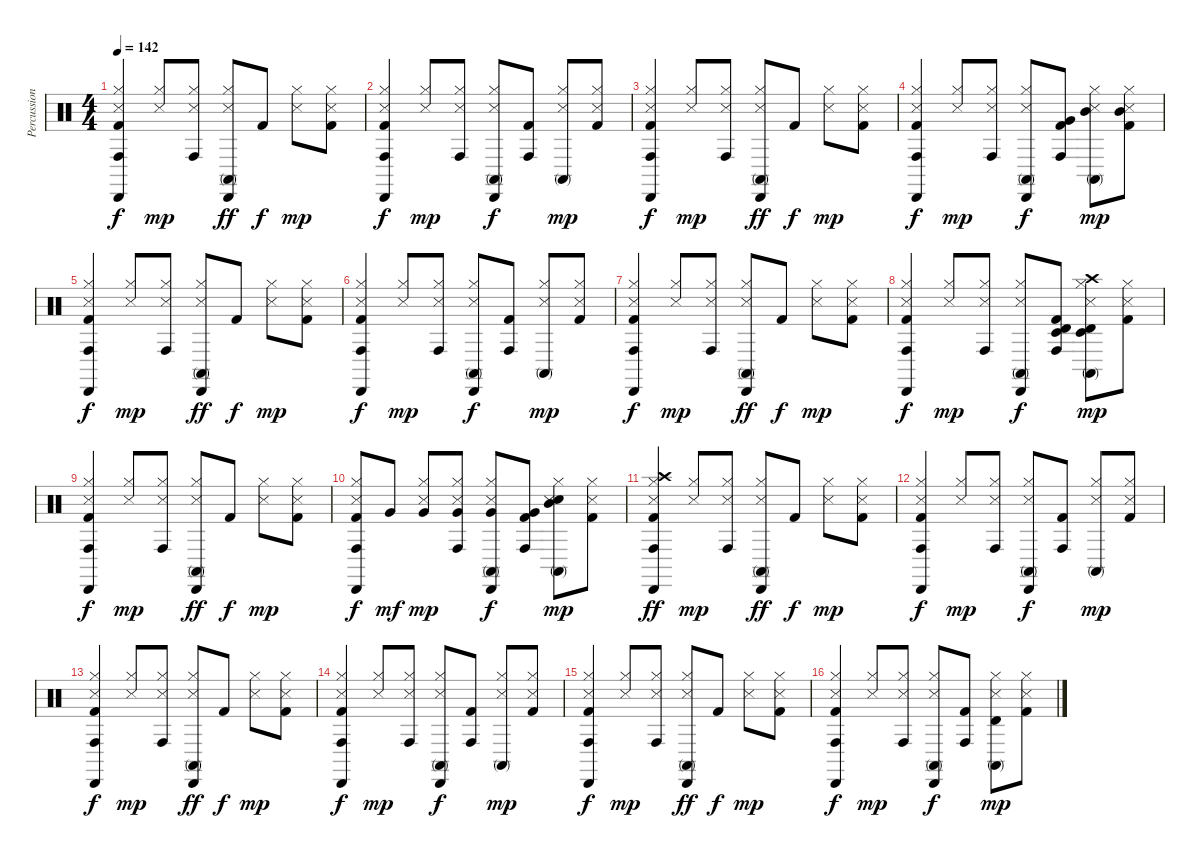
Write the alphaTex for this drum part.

\track ("Percussion" "Percussion") {instrument percussion}
\staff {score}
\articulation defaults
\ts (4 4)
\tempo 142
\clef neutral
\ks c
("Conga high (hit)" "Cabasa (hit)" "Hi-Hat (closed)" "Snare (side stick) 3" "Kick (hit) 2").4{dy f} ("Hi-Hat (closed)" "Snare (side stick) 3").8{dy mp} ("Conga high (hit)" "Hi-Hat (closed)" "Snare (side stick) 3").8 ("Conga high (mute)" "Cabasa (hit)" "Hi-Hat (closed)" "Snare (side stick) 3").8{dy ff} "Kick (hit) 2".8{dy f} ("Hi-Hat (closed)" "Snare (side stick) 3").8{dy mp} ("Hi-Hat (closed)" "Snare (side stick) 3" "Kick (hit) 2").8 |
("Conga high (hit)" "Cabasa (hit)" "Hi-Hat (closed)" "Snare (side stick) 3" "Kick (hit) 2").4{dy f} ("Hi-Hat (closed)" "Snare (side stick) 3").8{dy mp} ("Conga high (hit)" "Hi-Hat (closed)" "Snare (side stick) 3").8 ("Conga high (mute)" "Cabasa (hit)" "Hi-Hat (closed)" "Snare (side stick) 3").8{dy f} ("Conga high (hit)" "Kick (hit) 2").8 ("Conga high (mute)" "Hi-Hat (closed)" "Snare (side stick) 3").8{dy mp} ("Hi-Hat (closed)" "Snare (side stick) 3" "Kick (hit) 2").8 |
("Conga high (hit)" "Cabasa (hit)" "Hi-Hat (closed)" "Snare (side stick) 3" "Kick (hit) 2").4{dy f} ("Hi-Hat (closed)" "Snare (side stick) 3").8{dy mp} ("Conga high (hit)" "Hi-Hat (closed)" "Snare (side stick) 3").8 ("Conga high (mute)" "Cabasa (hit)" "Hi-Hat (closed)" "Snare (side stick) 3").8{dy ff} "Kick (hit) 2".8{dy f} ("Hi-Hat (closed)" "Snare (side stick) 3").8{dy mp} ("Hi-Hat (closed)" "Snare (side stick) 3" "Kick (hit) 2").8 |
("Conga high (hit)" "Cabasa (hit)" "Hi-Hat (closed)" "Snare (side stick) 3" "Kick (hit) 2").4{dy f} ("Hi-Hat (closed)" "Snare (side stick) 3").8{dy mp} ("Conga high (hit)" "Hi-Hat (closed)" "Snare (side stick) 3").8 ("Conga high (mute)" "Cabasa (hit)" "Hi-Hat (closed)" "Snare (side stick) 3").8{dy f} ("Conga high (hit)" "Very Low Tom (hit)" "Kick (hit) 2").8 ("Conga high (mute)" "Mid Tom (hit)" "Hi-Hat (closed)" "Snare (side stick) 3").8{dy mp} ("Mid Tom (hit)" "Hi-Hat (closed)" "Snare (side stick) 3" "Kick (hit) 2").8 |
("Conga high (hit)" "Cabasa (hit)" "Hi-Hat (closed)" "Snare (side stick) 3" "Kick (hit) 2").4{dy f} ("Hi-Hat (closed)" "Snare (side stick) 3").8{dy mp} ("Conga high (hit)" "Hi-Hat (closed)" "Snare (side stick) 3").8 ("Conga high (mute)" "Cabasa (hit)" "Hi-Hat (closed)" "Snare (side stick) 3").8{dy ff} "Kick (hit) 2".8{dy f} ("Hi-Hat (closed)" "Snare (side stick) 3").8{dy mp} ("Hi-Hat (closed)" "Snare (side stick) 3" "Kick (hit) 2").8 |
("Conga high (hit)" "Cabasa (hit)" "Hi-Hat (closed)" "Snare (side stick) 3" "Kick (hit) 2").4{dy f} ("Hi-Hat (closed)" "Snare (side stick) 3").8{dy mp} ("Conga high (hit)" "Hi-Hat (closed)" "Snare (side stick) 3").8 ("Conga high (mute)" "Cabasa (hit)" "Hi-Hat (closed)" "Snare (side stick) 3").8{dy f} ("Conga high (hit)" "Kick (hit) 2").8 ("Conga high (mute)" "Hi-Hat (closed)" "Snare (side stick) 3").8{dy mp} ("Hi-Hat (closed)" "Snare (side stick) 3" "Kick (hit) 2").8 |
("Conga high (hit)" "Cabasa (hit)" "Hi-Hat (closed)" "Snare (side stick) 3" "Kick (hit) 2").4{dy f} ("Hi-Hat (closed)" "Snare (side stick) 3").8{dy mp} ("Conga high (hit)" "Hi-Hat (closed)" "Snare (side stick) 3").8 ("Conga high (mute)" "Cabasa (hit)" "Hi-Hat (closed)" "Snare (side stick) 3").8{dy ff} "Kick (hit) 2".8{dy f} ("Hi-Hat (closed)" "Snare (side stick) 3").8{dy mp} ("Hi-Hat (closed)" "Snare (side stick) 3" "Kick (hit) 2").8 |
("Conga high (hit)" "Cabasa (hit)" "Hi-Hat (closed)" "Snare (side stick) 3" "Kick (hit) 2").4{dy f} ("Hi-Hat (closed)" "Snare (side stick) 3").8{dy mp} ("Conga high (hit)" "Hi-Hat (closed)" "Snare (side stick) 3").8 ("Conga high (mute)" "Cabasa (hit)" "Hi-Hat (closed)" "Snare (side stick) 3").8{dy f} ("Timbale low (hit)" "Timbale high (hit)" "Conga high (hit)" "Kick (hit) 2").8 ("Timbale low (hit)" "Timbale high (hit)" "Conga high (mute)" "Crash high (hit)" "Hi-Hat (closed)" "Snare (side stick) 3").8{dy mp} ("Hi-Hat (closed)" "Snare (side stick) 3" "Kick (hit) 2").8 |
("Conga high (hit)" "Cabasa (hit)" "Hi-Hat (closed)" "Snare (side stick) 3" "Kick (hit) 2").4{dy f} ("Hi-Hat (closed)" "Snare (side stick) 3").8{dy mp} ("Conga high (hit)" "Hi-Hat (closed)" "Snare (side stick) 3").8 ("Conga high (mute)" "Cabasa (hit)" "Hi-Hat (closed)" "Snare (side stick) 3").8{dy ff} "Kick (hit) 2".8{dy f} ("Hi-Hat (closed)" "Snare (side stick) 3").8{dy mp} ("Hi-Hat (closed)" "Snare (side stick) 3" "Kick (hit) 2").8 |
("Conga high (hit)" "Cabasa (hit)" "Hi-Hat (closed)" "Snare (side stick) 3" "Kick (hit) 2").8{dy f} "Very Low Tom (hit)".8{dy mf} ("Very Low Tom (hit)" "Hi-Hat (closed)" "Snare (side stick) 3").8{dy mp} ("Conga high (hit)" "Very Low Tom (hit)" "Hi-Hat (closed)" "Snare (side stick) 3").8 ("Conga high (mute)" "Cabasa (hit)" "Very Low Tom (hit)" "Hi-Hat (closed)" "Snare (side stick) 3").8{dy f} ("Conga high (hit)" "Very Low Tom (hit)" "Kick (hit) 2").8 ("Conga high (mute)" "Mid Tom (hit)" "Hi-Hat (closed)" "Snare (hit) 2" "Snare (side stick) 3").8{dy mp} ("Hi-Hat (closed)" "Snare (side stick) 3" "Kick (hit) 2").8 |
("Conga high (hit)" "Cabasa (hit)" "Crash high (hit)" "Hi-Hat (closed)" "Snare (side stick) 3" "Kick (hit) 2").4{dy ff} ("Hi-Hat (closed)" "Snare (side stick) 3").8{dy mp} ("Conga high (hit)" "Hi-Hat (closed)" "Snare (side stick) 3").8 ("Conga high (mute)" "Cabasa (hit)" "Hi-Hat (closed)" "Snare (side stick) 3").8{dy ff} "Kick (hit) 2".8{dy f} ("Hi-Hat (closed)" "Snare (side stick) 3").8{dy mp} ("Hi-Hat (closed)" "Snare (side stick) 3" "Kick (hit) 2").8 |
("Conga high (hit)" "Cabasa (hit)" "Hi-Hat (closed)" "Snare (side stick) 3" "Kick (hit) 2").4{dy f} ("Hi-Hat (closed)" "Snare (side stick) 3").8{dy mp} ("Conga high (hit)" "Hi-Hat (closed)" "Snare (side stick) 3").8 ("Conga high (mute)" "Cabasa (hit)" "Hi-Hat (closed)" "Snare (side stick) 3").8{dy f} ("Conga high (hit)" "Kick (hit) 2").8 ("Conga high (mute)" "Hi-Hat (closed)" "Snare (side stick) 3").8{dy mp} ("Hi-Hat (closed)" "Snare (side stick) 3" "Kick (hit) 2").8 |
("Conga high (hit)" "Cabasa (hit)" "Hi-Hat (closed)" "Snare (side stick) 3" "Kick (hit) 2").4{dy f} ("Hi-Hat (closed)" "Snare (side stick) 3").8{dy mp} ("Conga high (hit)" "Hi-Hat (closed)" "Snare (side stick) 3").8 ("Conga high (mute)" "Cabasa (hit)" "Hi-Hat (closed)" "Snare (side stick) 3").8{dy ff} "Kick (hit) 2".8{dy f} ("Hi-Hat (closed)" "Snare (side stick) 3").8{dy mp} ("Hi-Hat (closed)" "Snare (side stick) 3" "Kick (hit) 2").8 |
("Conga high (hit)" "Cabasa (hit)" "Hi-Hat (closed)" "Snare (side stick) 3" "Kick (hit) 2").4{dy f} ("Hi-Hat (closed)" "Snare (side stick) 3").8{dy mp} ("Conga high (hit)" "Hi-Hat (closed)" "Snare (side stick) 3").8 ("Conga high (mute)" "Cabasa (hit)" "Hi-Hat (closed)" "Snare (side stick) 3").8{dy f} ("Conga high (hit)" "Kick (hit) 2").8 ("Conga high (mute)" "Hi-Hat (closed)" "Snare (side stick) 3").8{dy mp} ("Hi-Hat (closed)" "Snare (side stick) 3" "Kick (hit) 2").8 |
("Conga high (hit)" "Cabasa (hit)" "Hi-Hat (closed)" "Snare (side stick) 3" "Kick (hit) 2").4{dy f} ("Hi-Hat (closed)" "Snare (side stick) 3").8{dy mp} ("Conga high (hit)" "Hi-Hat (closed)" "Snare (side stick) 3").8 ("Conga high (mute)" "Cabasa (hit)" "Hi-Hat (closed)" "Snare (side stick) 3").8{dy ff} "Kick (hit) 2".8{dy f} ("Hi-Hat (closed)" "Snare (side stick) 3").8{dy mp} ("Hi-Hat (closed)" "Snare (side stick) 3" "Kick (hit) 2").8 |
("Conga high (hit)" "Cabasa (hit)" "Hi-Hat (closed)" "Snare (side stick) 3" "Kick (hit) 2").4{dy f} ("Hi-Hat (closed)" "Snare (side stick) 3").8{dy mp} ("Conga high (hit)" "Hi-Hat (closed)" "Snare (side stick) 3").8 ("Conga high (mute)" "Cabasa (hit)" "Hi-Hat (closed)" "Snare (side stick) 3").8{dy f} ("Conga high (hit)" "Kick (hit) 2").8 ("Timbale high (hit)" "Conga high (mute)" "Hi-Hat (closed)" "Snare (side stick) 3").8{dy mp} ("Hi-Hat (closed)" "Snare (side stick) 3" "Kick (hit) 2").8
